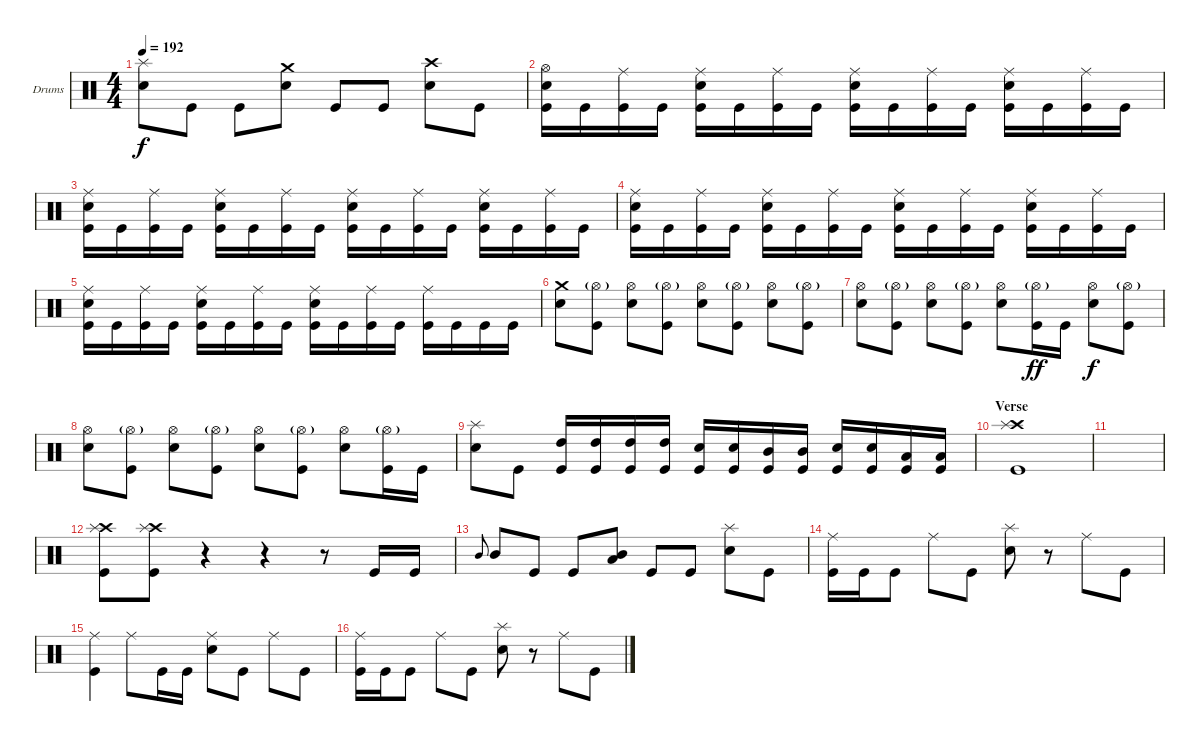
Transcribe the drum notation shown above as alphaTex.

\bracketExtendMode groupsimilarinstruments
\firstSystemTrackNameOrientation horizontal
\otherSystemsTrackNameOrientation horizontal
\track ("Corey Friedlander" "Drums") {instrument percussion}
\staff {score}
\articulation defaults
\ts (4 4)
\tempo 192
\clef neutral
\ks aminor
("Snare (hit) 2" "Splash (hit)").8{dy f} "Kick (hit)".8 "Kick (hit)".8 ("Snare (hit) 2" "Crash medium (hit)").8 "Kick (hit)".8 "Kick (hit)".8 ("Snare (hit) 2" "Crash high (hit)").8 "Kick (hit)".8 |
("Snare (hit) 2" "Kick (hit)" "Hi-Hat (open)").16 "Kick (hit)".16 ("Kick (hit)" "Ride (middle)").16 "Kick (hit)".16 ("Kick (hit)" "Snare (hit) 2" "Ride (middle)").16 "Kick (hit)".16 ("Kick (hit)" "Ride (middle)").16 "Kick (hit)".16 ("Kick (hit)" "Snare (hit) 2" "Ride (middle)").16 "Kick (hit)".16 ("Kick (hit)" "Ride (middle)").16 "Kick (hit)".16 ("Kick (hit)" "Snare (hit) 2" "Ride (middle)").16 "Kick (hit)".16 ("Kick (hit)" "Ride (middle)").16 "Kick (hit)".16 |
("Snare (hit) 2" "Kick (hit)" "Ride (middle)").16 "Kick (hit)".16 ("Kick (hit)" "Ride (middle)").16 "Kick (hit)".16 ("Kick (hit)" "Snare (hit) 2" "Ride (middle)").16 "Kick (hit)".16 ("Kick (hit)" "Ride (middle)").16 "Kick (hit)".16 ("Kick (hit)" "Snare (hit) 2" "Ride (middle)").16 "Kick (hit)".16 ("Kick (hit)" "Ride (middle)").16 "Kick (hit)".16 ("Kick (hit)" "Snare (hit) 2" "Ride (middle)").16 "Kick (hit)".16 ("Kick (hit)" "Ride (middle)").16 "Kick (hit)".16 |
("Snare (hit) 2" "Kick (hit)" "Ride (middle)").16 "Kick (hit)".16 ("Kick (hit)" "Ride (middle)").16 "Kick (hit)".16 ("Kick (hit)" "Snare (hit) 2" "Ride (middle)").16 "Kick (hit)".16 ("Kick (hit)" "Ride (middle)").16 "Kick (hit)".16 ("Kick (hit)" "Snare (hit) 2" "Ride (middle)").16 "Kick (hit)".16 ("Kick (hit)" "Ride (middle)").16 "Kick (hit)".16 ("Kick (hit)" "Snare (hit) 2" "Ride (middle)").16 "Kick (hit)".16 ("Kick (hit)" "Ride (middle)").16 "Kick (hit)".16 |
("Snare (hit) 2" "Kick (hit)" "Ride (middle)").16 "Kick (hit)".16 ("Kick (hit)" "Ride (middle)").16 "Kick (hit)".16 ("Kick (hit)" "Snare (hit) 2" "Ride (middle)").16 "Kick (hit)".16 ("Kick (hit)" "Ride (middle)").16 "Kick (hit)".16 ("Kick (hit)" "Snare (hit) 2" "Ride (middle)").16 "Kick (hit)".16 ("Kick (hit)" "Ride (middle)").16 "Kick (hit)".16 ("Kick (hit)" "Ride (middle)").16 "Kick (hit)".16 "Kick (hit)".16 "Kick (hit)".16 |
("Snare (hit) 2" "Crash medium (hit)").8 ("Kick (hit)" "Hi-Hat (open)"{g}).8 ("Snare (hit) 2" "Hi-Hat (open)").8 ("Kick (hit)" "Hi-Hat (open)"{g}).8 ("Snare (hit) 2" "Hi-Hat (open)").8 ("Kick (hit)" "Hi-Hat (open)"{g}).8 ("Snare (hit) 2" "Hi-Hat (open)").8 ("Kick (hit)" "Hi-Hat (open)"{g}).8 |
("Snare (hit) 2" "Hi-Hat (open)").8 ("Kick (hit)" "Hi-Hat (open)"{g}).8 ("Snare (hit) 2" "Hi-Hat (open)").8 ("Kick (hit)" "Hi-Hat (open)"{g}).8 ("Snare (hit) 2" "Hi-Hat (open)").8 ("Kick (hit)" "Hi-Hat (open)"{g}).16{dy ff} "Kick (hit)".16 ("Snare (hit) 2" "Hi-Hat (open)").8{dy f} ("Kick (hit)" "Hi-Hat (open)"{g}).8 |
("Snare (hit) 2" "Hi-Hat (open)").8 ("Kick (hit)" "Hi-Hat (open)"{g}).8 ("Snare (hit) 2" "Hi-Hat (open)").8 ("Kick (hit)" "Hi-Hat (open)"{g}).8 ("Snare (hit) 2" "Hi-Hat (open)").8 ("Kick (hit)" "Hi-Hat (open)"{g}).8 ("Snare (hit) 2" "Hi-Hat (open)").8 ("Kick (hit)" "Hi-Hat (open)"{g}).16 "Kick (hit)".16 |
("Snare (hit) 2" "Splash (hit)").8 "Kick (hit)".8 ("High Tom (hit)" "Kick (hit)").16 ("High Tom (hit)" "Kick (hit)").16 ("High Tom (hit)" "Kick (hit)").16 ("High Tom (hit)" "Kick (hit)").16 ("Snare (hit) 2" "Kick (hit)").16 ("Snare (hit) 2" "Kick (hit)").16 ("Kick (hit)" "Mid Tom (hit)").16 ("Kick (hit)" "Mid Tom (hit)").16 ("Kick (hit)" "Snare (hit) 2").16 ("Kick (hit)" "Snare (hit) 2").16 ("Low Tom (hit)" "Kick (hit)").16 ("Low Tom (hit)" "Kick (hit)").16 |
\section ("" "Verse")
("Kick (hit)" "Crash high (hit)" "Splash (hit)").1 |
|
("Kick (hit)" "Crash high (hit)" "Splash (hit)").8 ("Kick (hit)" "Crash high (hit)" "Splash (hit)").8 r.4 r.4 r.8 "Kick (hit)".16 "Kick (hit)".16 |
"Mid Tom (hit)".8{gr onbeat} "Mid Tom (hit)".8 "Kick (hit)".8 "Kick (hit)".8 ("Mid Tom (hit)" "Low Tom (hit)").8 "Kick (hit)".8 "Kick (hit)".8 ("Snare (hit) 2" "Splash (hit)").8 "Kick (hit)".8 |
("Kick (hit)" "Ride (middle)").16 "Kick (hit)".16 "Kick (hit)".8 "Ride (middle)".8 "Kick (hit)".8 ("Snare (hit) 2" "Splash (hit)").8 r.8 "Ride (middle)".8 "Kick (hit)".8 |
("Kick (hit)" "Ride (middle)").4 "Ride (middle)".8 "Kick (hit)".16 "Kick (hit)".16 ("Snare (hit) 2" "Ride (middle)").8 "Kick (hit)".8 "Ride (middle)".8 "Kick (hit)".8 |
("Kick (hit)" "Ride (middle)").16 "Kick (hit)".16 "Kick (hit)".8 "Ride (middle)".8 "Kick (hit)".8 ("Snare (hit) 2" "Splash (hit)").8 r.8 "Ride (middle)".8 "Kick (hit)".8
